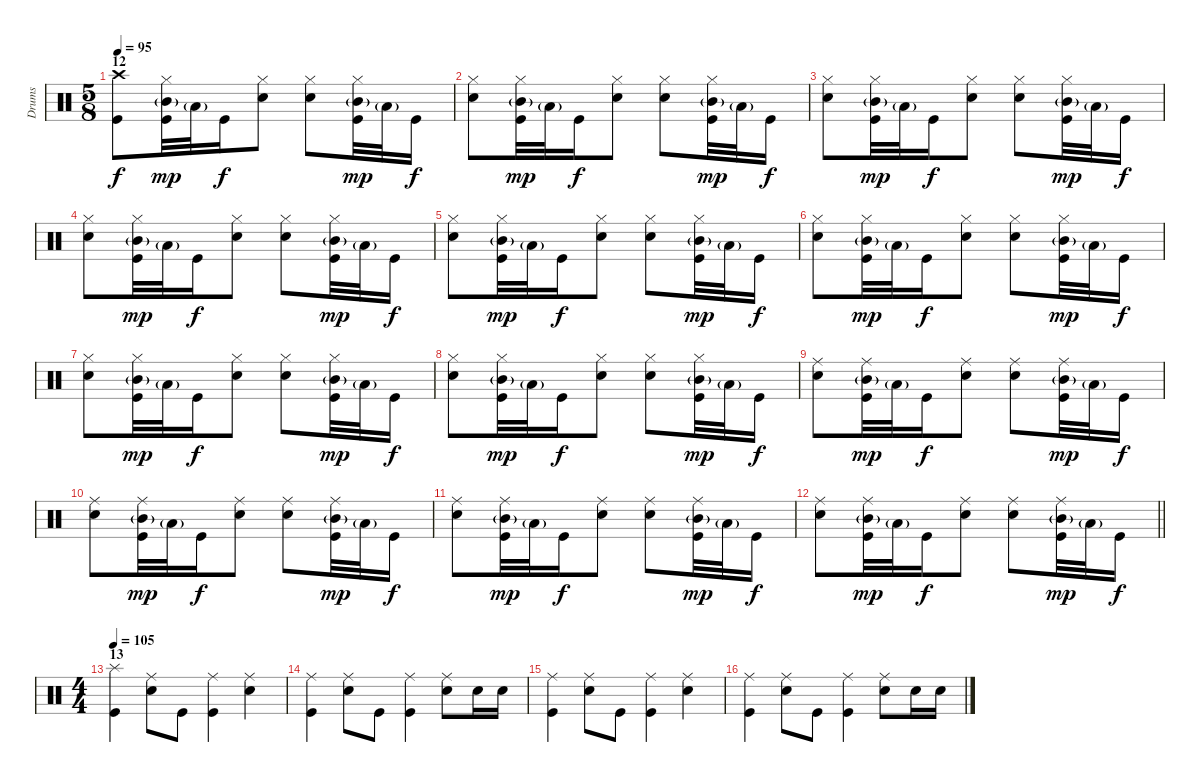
\track ("Drums" "Drums") {instrument percussion}
\staff
\articulation defaults
\ts (5 8)
\section ("" "12")
\tempo 95
\clef neutral
\ks c
("Crash high (hit)" "Kick (hit)").8{dy f} ("Hi-Hat (closed)" "Mid Tom (hit)"{g} "Kick (hit)").32{dy mp} "Low Tom (hit)"{g}.32 "Kick (hit)".16{dy f} ("Hi-Hat (closed)" "Electric Snare (hit)").8 ("Hi-Hat (closed)" "Electric Snare (hit)").8 ("Hi-Hat (closed)" "Mid Tom (hit)"{g} "Kick (hit)").32{dy mp} "Low Tom (hit)"{g}.32 "Kick (hit)".16{dy f} |
("Hi-Hat (closed)" "Electric Snare (hit)").8 ("Hi-Hat (closed)" "Mid Tom (hit)"{g} "Kick (hit)").32{dy mp} "Low Tom (hit)"{g}.32 "Kick (hit)".16{dy f} ("Hi-Hat (closed)" "Electric Snare (hit)").8 ("Hi-Hat (closed)" "Electric Snare (hit)").8 ("Hi-Hat (closed)" "Mid Tom (hit)"{g} "Kick (hit)").32{dy mp} "Low Tom (hit)"{g}.32 "Kick (hit)".16{dy f} |
("Hi-Hat (closed)" "Electric Snare (hit)").8 ("Hi-Hat (closed)" "Mid Tom (hit)"{g} "Kick (hit)").32{dy mp} "Low Tom (hit)"{g}.32 "Kick (hit)".16{dy f} ("Hi-Hat (closed)" "Electric Snare (hit)").8 ("Hi-Hat (closed)" "Electric Snare (hit)").8 ("Hi-Hat (closed)" "Mid Tom (hit)"{g} "Kick (hit)").32{dy mp} "Low Tom (hit)"{g}.32 "Kick (hit)".16{dy f} |
("Hi-Hat (closed)" "Electric Snare (hit)").8 ("Hi-Hat (closed)" "Mid Tom (hit)"{g} "Kick (hit)").32{dy mp} "Low Tom (hit)"{g}.32 "Kick (hit)".16{dy f} ("Hi-Hat (closed)" "Electric Snare (hit)").8 ("Hi-Hat (closed)" "Electric Snare (hit)").8 ("Hi-Hat (closed)" "Mid Tom (hit)"{g} "Kick (hit)").32{dy mp} "Low Tom (hit)"{g}.32 "Kick (hit)".16{dy f} |
("Hi-Hat (closed)" "Electric Snare (hit)").8 ("Hi-Hat (closed)" "Mid Tom (hit)"{g} "Kick (hit)").32{dy mp} "Low Tom (hit)"{g}.32 "Kick (hit)".16{dy f} ("Hi-Hat (closed)" "Electric Snare (hit)").8 ("Hi-Hat (closed)" "Electric Snare (hit)").8 ("Hi-Hat (closed)" "Mid Tom (hit)"{g} "Kick (hit)").32{dy mp} "Low Tom (hit)"{g}.32 "Kick (hit)".16{dy f} |
("Hi-Hat (closed)" "Electric Snare (hit)").8 ("Hi-Hat (closed)" "Mid Tom (hit)"{g} "Kick (hit)").32{dy mp} "Low Tom (hit)"{g}.32 "Kick (hit)".16{dy f} ("Hi-Hat (closed)" "Electric Snare (hit)").8 ("Hi-Hat (closed)" "Electric Snare (hit)").8 ("Hi-Hat (closed)" "Mid Tom (hit)"{g} "Kick (hit)").32{dy mp} "Low Tom (hit)"{g}.32 "Kick (hit)".16{dy f} |
("Hi-Hat (closed)" "Electric Snare (hit)").8 ("Hi-Hat (closed)" "Mid Tom (hit)"{g} "Kick (hit)").32{dy mp} "Low Tom (hit)"{g}.32 "Kick (hit)".16{dy f} ("Hi-Hat (closed)" "Electric Snare (hit)").8 ("Hi-Hat (closed)" "Electric Snare (hit)").8 ("Hi-Hat (closed)" "Mid Tom (hit)"{g} "Kick (hit)").32{dy mp} "Low Tom (hit)"{g}.32 "Kick (hit)".16{dy f} |
("Hi-Hat (closed)" "Electric Snare (hit)").8 ("Hi-Hat (closed)" "Mid Tom (hit)"{g} "Kick (hit)").32{dy mp} "Low Tom (hit)"{g}.32 "Kick (hit)".16{dy f} ("Hi-Hat (closed)" "Electric Snare (hit)").8 ("Hi-Hat (closed)" "Electric Snare (hit)").8 ("Hi-Hat (closed)" "Mid Tom (hit)"{g} "Kick (hit)").32{dy mp} "Low Tom (hit)"{g}.32 "Kick (hit)".16{dy f} |
("Ride (middle)" "Electric Snare (hit)").8 ("Ride (middle)" "Mid Tom (hit)"{g} "Kick (hit)").32{dy mp} "Low Tom (hit)"{g}.32 "Kick (hit)".16{dy f} ("Ride (middle)" "Electric Snare (hit)").8 ("Ride (middle)" "Electric Snare (hit)").8 ("Ride (middle)" "Mid Tom (hit)"{g} "Kick (hit)").32{dy mp} "Low Tom (hit)"{g}.32 "Kick (hit)".16{dy f} |
("Ride (middle)" "Electric Snare (hit)").8 ("Ride (middle)" "Mid Tom (hit)"{g} "Kick (hit)").32{dy mp} "Low Tom (hit)"{g}.32 "Kick (hit)".16{dy f} ("Ride (middle)" "Electric Snare (hit)").8 ("Ride (middle)" "Electric Snare (hit)").8 ("Ride (middle)" "Mid Tom (hit)"{g} "Kick (hit)").32{dy mp} "Low Tom (hit)"{g}.32 "Kick (hit)".16{dy f} |
("Ride (middle)" "Electric Snare (hit)").8 ("Ride (middle)" "Mid Tom (hit)"{g} "Kick (hit)").32{dy mp} "Low Tom (hit)"{g}.32 "Kick (hit)".16{dy f} ("Ride (middle)" "Electric Snare (hit)").8 ("Ride (middle)" "Electric Snare (hit)").8 ("Ride (middle)" "Mid Tom (hit)"{g} "Kick (hit)").32{dy mp} "Low Tom (hit)"{g}.32 "Kick (hit)".16{dy f} |
\barLineRight lightlight
("Ride (middle)" "Electric Snare (hit)").8 ("Ride (middle)" "Mid Tom (hit)"{g} "Kick (hit)").32{dy mp} "Low Tom (hit)"{g}.32 "Kick (hit)".16{dy f} ("Ride (middle)" "Electric Snare (hit)").8 ("Ride (middle)" "Electric Snare (hit)").8 ("Ride (middle)" "Mid Tom (hit)"{g} "Kick (hit)").32{dy mp} "Low Tom (hit)"{g}.32 "Kick (hit)".16{dy f} |
\ts (4 4)
\section ("" "13")
\tempo 105
("Splash (hit)" "Kick (hit)").4 ("Ride (middle)" "Electric Snare (hit)").8 "Kick (hit)".8 ("Ride (middle)" "Kick (hit)").4 ("Ride (middle)" "Electric Snare (hit)").4 |
("Ride (middle)" "Kick (hit)").4 ("Ride (middle)" "Electric Snare (hit)").8 "Kick (hit)".8 ("Ride (middle)" "Kick (hit)").4 ("Ride (middle)" "Electric Snare (hit)").8 "Electric Snare (hit)".16 "Electric Snare (hit)".16 |
("Ride (middle)" "Kick (hit)").4 ("Ride (middle)" "Electric Snare (hit)").8 "Kick (hit)".8 ("Ride (middle)" "Kick (hit)").4 ("Ride (middle)" "Electric Snare (hit)").4 |
("Ride (middle)" "Kick (hit)").4 ("Ride (middle)" "Electric Snare (hit)").8 "Kick (hit)".8 ("Ride (middle)" "Kick (hit)").4 ("Ride (middle)" "Electric Snare (hit)").8 "Electric Snare (hit)".16 "Electric Snare (hit)".16
